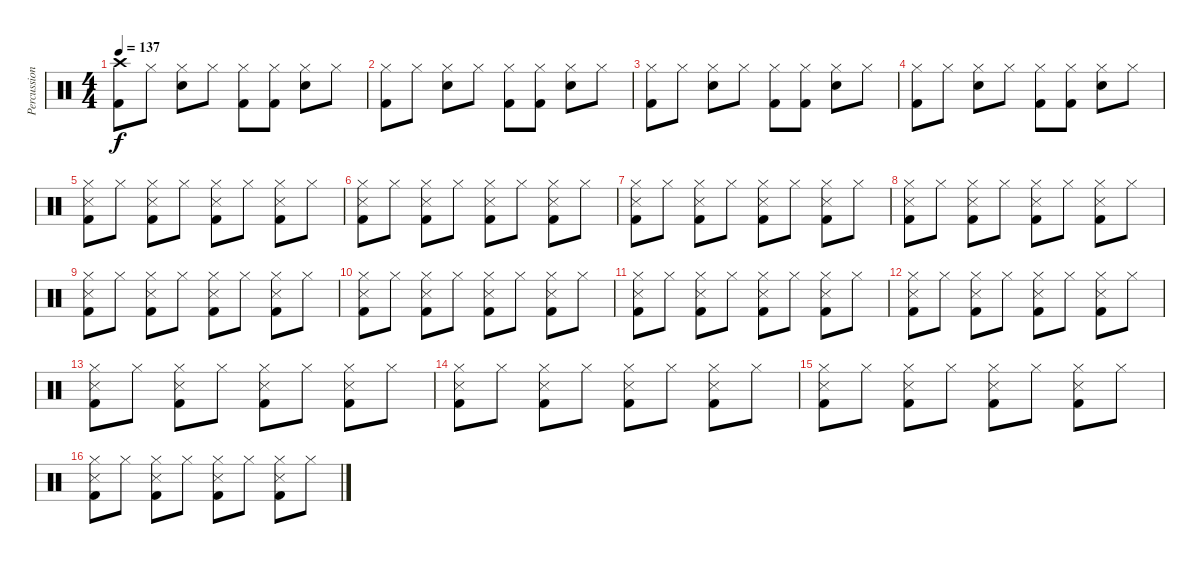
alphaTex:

\track ("Percussions" "Percussion") {instrument percussion}
\staff {score}
\articulation defaults
\ts (4 4)
\tempo 137
\clef neutral
\ks c
("Crash high (hit)" "Kick (hit) 2").8{dy f} "Hi-Hat (closed)".8 ("Hi-Hat (closed)" "Snare (hit) 2").8 "Hi-Hat (closed)".8 ("Hi-Hat (closed)" "Kick (hit) 2").8 ("Hi-Hat (closed)" "Kick (hit) 2").8 ("Hi-Hat (closed)" "Snare (hit) 2").8 "Hi-Hat (closed)".8 |
("Hi-Hat (closed)" "Kick (hit) 2").8 "Hi-Hat (closed)".8 ("Hi-Hat (closed)" "Snare (hit) 2").8 "Hi-Hat (closed)".8 ("Hi-Hat (closed)" "Kick (hit) 2").8 ("Hi-Hat (closed)" "Kick (hit) 2").8 ("Hi-Hat (closed)" "Snare (hit) 2").8 "Hi-Hat (closed)".8 |
("Hi-Hat (closed)" "Kick (hit) 2").8 "Hi-Hat (closed)".8 ("Hi-Hat (closed)" "Snare (hit) 2").8 "Hi-Hat (closed)".8 ("Hi-Hat (closed)" "Kick (hit) 2").8 ("Hi-Hat (closed)" "Kick (hit) 2").8 ("Hi-Hat (closed)" "Snare (hit) 2").8 "Hi-Hat (closed)".8 |
("Hi-Hat (closed)" "Kick (hit) 2").8 "Hi-Hat (closed)".8 ("Hi-Hat (closed)" "Snare (hit) 2").8 "Hi-Hat (closed)".8 ("Hi-Hat (closed)" "Kick (hit) 2").8 ("Hi-Hat (closed)" "Kick (hit) 2").8 ("Hi-Hat (closed)" "Snare (hit) 2").8 "Hi-Hat (closed)".8 |
("Hi-Hat (closed)" "Snare (side stick) 3" "Kick (hit) 2").8 "Hi-Hat (closed)".8 ("Hi-Hat (closed)" "Snare (side stick) 3" "Kick (hit) 2").8 "Hi-Hat (closed)".8 ("Hi-Hat (closed)" "Snare (side stick) 3" "Kick (hit) 2").8 "Hi-Hat (closed)".8 ("Hi-Hat (closed)" "Snare (side stick) 3" "Kick (hit) 2").8 "Hi-Hat (closed)".8 |
("Hi-Hat (closed)" "Snare (side stick) 3" "Kick (hit) 2").8 "Hi-Hat (closed)".8 ("Hi-Hat (closed)" "Snare (side stick) 3" "Kick (hit) 2").8 "Hi-Hat (closed)".8 ("Hi-Hat (closed)" "Snare (side stick) 3" "Kick (hit) 2").8 "Hi-Hat (closed)".8 ("Hi-Hat (closed)" "Snare (side stick) 3" "Kick (hit) 2").8 "Hi-Hat (closed)".8 |
("Hi-Hat (closed)" "Snare (side stick) 3" "Kick (hit) 2").8 "Hi-Hat (closed)".8 ("Hi-Hat (closed)" "Snare (side stick) 3" "Kick (hit) 2").8 "Hi-Hat (closed)".8 ("Hi-Hat (closed)" "Snare (side stick) 3" "Kick (hit) 2").8 "Hi-Hat (closed)".8 ("Hi-Hat (closed)" "Snare (side stick) 3" "Kick (hit) 2").8 "Hi-Hat (closed)".8 |
("Hi-Hat (closed)" "Snare (side stick) 3" "Kick (hit) 2").8 "Hi-Hat (closed)".8 ("Hi-Hat (closed)" "Snare (side stick) 3" "Kick (hit) 2").8 "Hi-Hat (closed)".8 ("Hi-Hat (closed)" "Snare (side stick) 3" "Kick (hit) 2").8 "Hi-Hat (closed)".8 ("Hi-Hat (closed)" "Snare (side stick) 3" "Kick (hit) 2").8 "Hi-Hat (closed)".8 |
("Hi-Hat (closed)" "Snare (side stick) 3" "Kick (hit) 2").8 "Hi-Hat (closed)".8 ("Hi-Hat (closed)" "Snare (side stick) 3" "Kick (hit) 2").8 "Hi-Hat (closed)".8 ("Hi-Hat (closed)" "Snare (side stick) 3" "Kick (hit) 2").8 "Hi-Hat (closed)".8 ("Hi-Hat (closed)" "Snare (side stick) 3" "Kick (hit) 2").8 "Hi-Hat (closed)".8 |
("Hi-Hat (closed)" "Snare (side stick) 3" "Kick (hit) 2").8 "Hi-Hat (closed)".8 ("Hi-Hat (closed)" "Snare (side stick) 3" "Kick (hit) 2").8 "Hi-Hat (closed)".8 ("Hi-Hat (closed)" "Snare (side stick) 3" "Kick (hit) 2").8 "Hi-Hat (closed)".8 ("Hi-Hat (closed)" "Snare (side stick) 3" "Kick (hit) 2").8 "Hi-Hat (closed)".8 |
("Hi-Hat (closed)" "Snare (side stick) 3" "Kick (hit) 2").8 "Hi-Hat (closed)".8 ("Hi-Hat (closed)" "Snare (side stick) 3" "Kick (hit) 2").8 "Hi-Hat (closed)".8 ("Hi-Hat (closed)" "Snare (side stick) 3" "Kick (hit) 2").8 "Hi-Hat (closed)".8 ("Hi-Hat (closed)" "Snare (side stick) 3" "Kick (hit) 2").8 "Hi-Hat (closed)".8 |
("Hi-Hat (closed)" "Snare (side stick) 3" "Kick (hit) 2").8 "Hi-Hat (closed)".8 ("Hi-Hat (closed)" "Snare (side stick) 3" "Kick (hit) 2").8 "Hi-Hat (closed)".8 ("Hi-Hat (closed)" "Snare (side stick) 3" "Kick (hit) 2").8 "Hi-Hat (closed)".8 ("Hi-Hat (closed)" "Snare (side stick) 3" "Kick (hit) 2").8 "Hi-Hat (closed)".8 |
("Hi-Hat (closed)" "Snare (side stick) 3" "Kick (hit) 2").8 "Hi-Hat (closed)".8 ("Hi-Hat (closed)" "Snare (side stick) 3" "Kick (hit) 2").8 "Hi-Hat (closed)".8 ("Hi-Hat (closed)" "Snare (side stick) 3" "Kick (hit) 2").8 "Hi-Hat (closed)".8 ("Hi-Hat (closed)" "Snare (side stick) 3" "Kick (hit) 2").8 "Hi-Hat (closed)".8 |
("Hi-Hat (closed)" "Snare (side stick) 3" "Kick (hit) 2").8 "Hi-Hat (closed)".8 ("Hi-Hat (closed)" "Snare (side stick) 3" "Kick (hit) 2").8 "Hi-Hat (closed)".8 ("Hi-Hat (closed)" "Snare (side stick) 3" "Kick (hit) 2").8 "Hi-Hat (closed)".8 ("Hi-Hat (closed)" "Snare (side stick) 3" "Kick (hit) 2").8 "Hi-Hat (closed)".8 |
("Hi-Hat (closed)" "Snare (side stick) 3" "Kick (hit) 2").8 "Hi-Hat (closed)".8 ("Hi-Hat (closed)" "Snare (side stick) 3" "Kick (hit) 2").8 "Hi-Hat (closed)".8 ("Hi-Hat (closed)" "Snare (side stick) 3" "Kick (hit) 2").8 "Hi-Hat (closed)".8 ("Hi-Hat (closed)" "Snare (side stick) 3" "Kick (hit) 2").8 "Hi-Hat (closed)".8 |
("Hi-Hat (closed)" "Snare (side stick) 3" "Kick (hit) 2").8 "Hi-Hat (closed)".8 ("Hi-Hat (closed)" "Snare (side stick) 3" "Kick (hit) 2").8 "Hi-Hat (closed)".8 ("Hi-Hat (closed)" "Snare (side stick) 3" "Kick (hit) 2").8 "Hi-Hat (closed)".8 ("Hi-Hat (closed)" "Snare (side stick) 3" "Kick (hit) 2").8 "Hi-Hat (closed)".8
